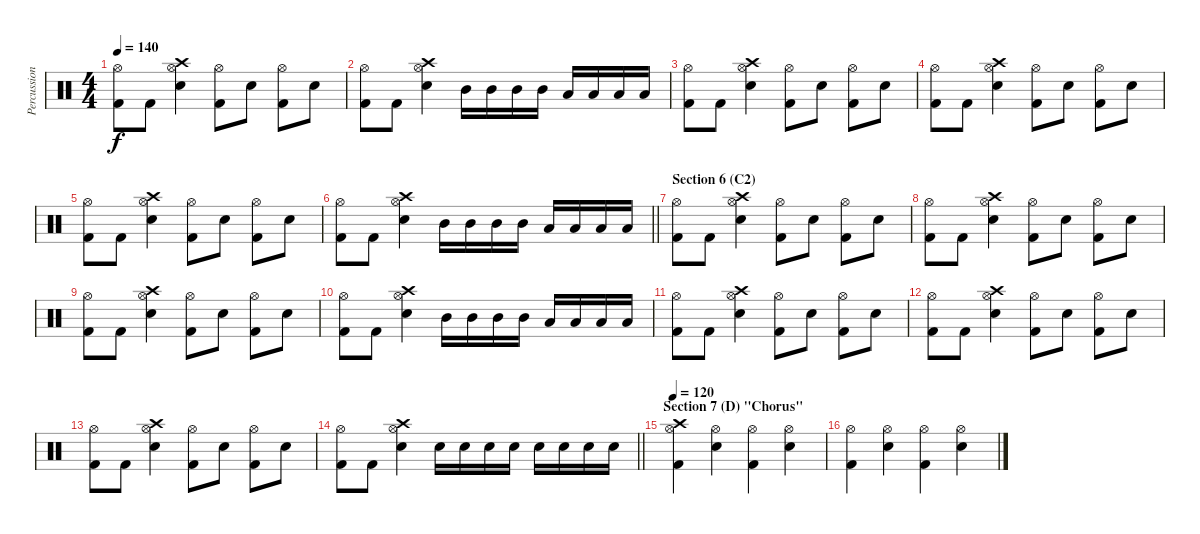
\track ("Percussion" "Percussion") {instrument percussion}
\staff {score}
\articulation defaults
\ts (4 4)
\tempo 140
\clef neutral
\ks c
("Hi-Hat (open)" "Kick (hit) 2").8{dy f} "Kick (hit) 2".8 ("Crash high (hit)" "Hi-Hat (open)" "Snare (hit) 2").4 ("Hi-Hat (open)" "Kick (hit) 2").8 "Snare (hit) 2".8 ("Hi-Hat (open)" "Kick (hit) 2").8 "Snare (hit) 2".8 |
("Hi-Hat (open)" "Kick (hit) 2").8 "Kick (hit) 2".8 ("Crash high (hit)" "Hi-Hat (open)" "Snare (hit) 2").4 "Mid Tom (hit)".16 "Mid Tom (hit)".16 "Mid Tom (hit)".16 "Mid Tom (hit)".16 "Low Tom (hit)".16 "Low Tom (hit)".16 "Low Tom (hit)".16 "Low Tom (hit)".16 |
("Hi-Hat (open)" "Kick (hit) 2").8 "Kick (hit) 2".8 ("Crash high (hit)" "Hi-Hat (open)" "Snare (hit) 2").4 ("Hi-Hat (open)" "Kick (hit) 2").8 "Snare (hit) 2".8 ("Hi-Hat (open)" "Kick (hit) 2").8 "Snare (hit) 2".8 |
("Hi-Hat (open)" "Kick (hit) 2").8 "Kick (hit) 2".8 ("Crash high (hit)" "Hi-Hat (open)" "Snare (hit) 2").4 ("Hi-Hat (open)" "Kick (hit) 2").8 "Snare (hit) 2".8 ("Hi-Hat (open)" "Kick (hit) 2").8 "Snare (hit) 2".8 |
("Hi-Hat (open)" "Kick (hit) 2").8 "Kick (hit) 2".8 ("Crash high (hit)" "Hi-Hat (open)" "Snare (hit) 2").4 ("Hi-Hat (open)" "Kick (hit) 2").8 "Snare (hit) 2".8 ("Hi-Hat (open)" "Kick (hit) 2").8 "Snare (hit) 2".8 |
\barLineRight lightlight
("Hi-Hat (open)" "Kick (hit) 2").8 "Kick (hit) 2".8 ("Crash high (hit)" "Hi-Hat (open)" "Snare (hit) 2").4 "Mid Tom (hit)".16 "Mid Tom (hit)".16 "Mid Tom (hit)".16 "Mid Tom (hit)".16 "Low Tom (hit)".16 "Low Tom (hit)".16 "Low Tom (hit)".16 "Low Tom (hit)".16 |
\section ("" "Section 6 (C2)")
("Hi-Hat (open)" "Kick (hit) 2").8 "Kick (hit) 2".8 ("Crash high (hit)" "Hi-Hat (open)" "Snare (hit) 2").4 ("Hi-Hat (open)" "Kick (hit) 2").8 "Snare (hit) 2".8 ("Hi-Hat (open)" "Kick (hit) 2").8 "Snare (hit) 2".8 |
("Hi-Hat (open)" "Kick (hit) 2").8 "Kick (hit) 2".8 ("Crash high (hit)" "Hi-Hat (open)" "Snare (hit) 2").4 ("Hi-Hat (open)" "Kick (hit) 2").8 "Snare (hit) 2".8 ("Hi-Hat (open)" "Kick (hit) 2").8 "Snare (hit) 2".8 |
("Hi-Hat (open)" "Kick (hit) 2").8 "Kick (hit) 2".8 ("Crash high (hit)" "Hi-Hat (open)" "Snare (hit) 2").4 ("Hi-Hat (open)" "Kick (hit) 2").8 "Snare (hit) 2".8 ("Hi-Hat (open)" "Kick (hit) 2").8 "Snare (hit) 2".8 |
("Hi-Hat (open)" "Kick (hit) 2").8 "Kick (hit) 2".8 ("Crash high (hit)" "Hi-Hat (open)" "Snare (hit) 2").4 "Mid Tom (hit)".16 "Mid Tom (hit)".16 "Mid Tom (hit)".16 "Mid Tom (hit)".16 "Low Tom (hit)".16 "Low Tom (hit)".16 "Low Tom (hit)".16 "Low Tom (hit)".16 |
("Hi-Hat (open)" "Kick (hit) 2").8 "Kick (hit) 2".8 ("Crash high (hit)" "Hi-Hat (open)" "Snare (hit) 2").4 ("Hi-Hat (open)" "Kick (hit) 2").8 "Snare (hit) 2".8 ("Hi-Hat (open)" "Kick (hit) 2").8 "Snare (hit) 2".8 |
("Hi-Hat (open)" "Kick (hit) 2").8 "Kick (hit) 2".8 ("Crash high (hit)" "Hi-Hat (open)" "Snare (hit) 2").4 ("Hi-Hat (open)" "Kick (hit) 2").8 "Snare (hit) 2".8 ("Hi-Hat (open)" "Kick (hit) 2").8 "Snare (hit) 2".8 |
("Hi-Hat (open)" "Kick (hit) 2").8 "Kick (hit) 2".8 ("Crash high (hit)" "Hi-Hat (open)" "Snare (hit) 2").4 ("Hi-Hat (open)" "Kick (hit) 2").8 "Snare (hit) 2".8 ("Hi-Hat (open)" "Kick (hit) 2").8 "Snare (hit) 2".8 |
\barLineRight lightlight
("Hi-Hat (open)" "Kick (hit) 2").8 "Kick (hit) 2".8 ("Crash high (hit)" "Hi-Hat (open)" "Snare (hit) 2").4 "Snare (hit) 2".16 "Snare (hit) 2".16 "Snare (hit) 2".16 "Snare (hit) 2".16 "Snare (hit) 2".16 "Snare (hit) 2".16 "Snare (hit) 2".16 "Snare (hit) 2".16 |
\section ("" "Section 7 (D) \"Chorus\"")
\tempo 116
\tempo 120
("Crash high (hit)" "Hi-Hat (open)" "Kick (hit) 2").4 ("Hi-Hat (open)" "Snare (hit) 2").4 ("Hi-Hat (open)" "Kick (hit) 2").4 ("Hi-Hat (open)" "Snare (hit) 2").4 |
("Hi-Hat (open)" "Kick (hit) 2").4 ("Hi-Hat (open)" "Snare (hit) 2").4 ("Hi-Hat (open)" "Kick (hit) 2").4 ("Hi-Hat (open)" "Snare (hit) 2").4
